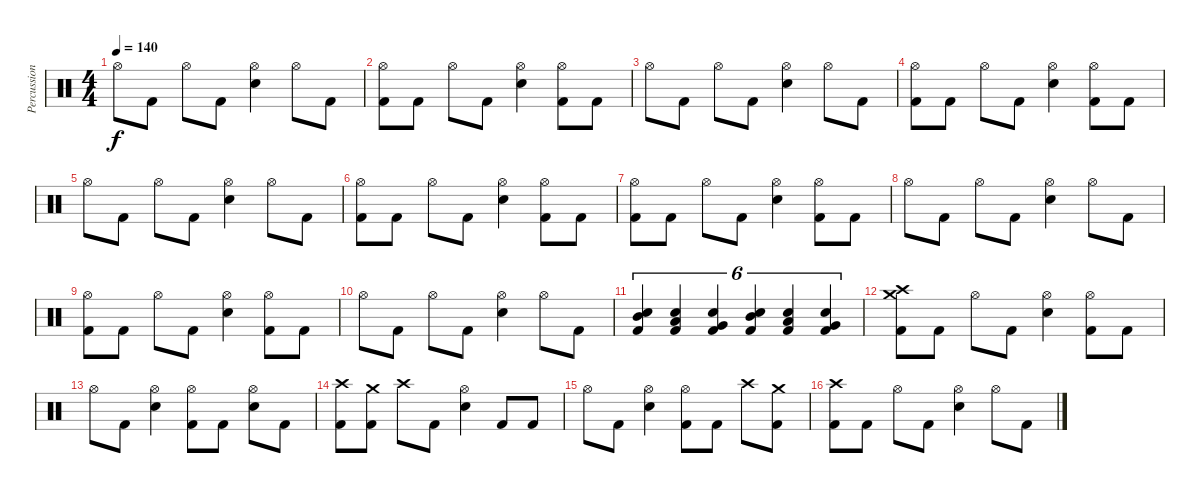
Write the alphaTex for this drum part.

\track ("Percussion" "Percussion") {instrument percussion}
\staff {score}
\articulation defaults
\ts (4 4)
\tempo 140
\clef neutral
\ks c "Hi-Hat (open)".8{dy f} "Kick (hit) 2".8 "Hi-Hat (open)".8 "Kick (hit) 2".8
("Hi-Hat (open)" "Electric Snare (hit)").4 "Hi-Hat (open)".8 "Kick (hit) 2".8 |
("Hi-Hat (open)" "Kick (hit) 2").8 "Kick (hit) 2".8 "Hi-Hat (open)".8 "Kick (hit) 2".8 ("Hi-Hat (open)" "Electric Snare (hit)").4 ("Hi-Hat (open)" "Kick (hit) 2").8 "Kick (hit) 2".8 |
"Hi-Hat (open)".8 "Kick (hit) 2".8 "Hi-Hat (open)".8 "Kick (hit) 2".8 ("Hi-Hat (open)" "Electric Snare (hit)").4 "Hi-Hat (open)".8 "Kick (hit) 2".8 |
("Hi-Hat (open)" "Kick (hit) 2").8 "Kick (hit) 2".8 "Hi-Hat (open)".8 "Kick (hit) 2".8 ("Hi-Hat (open)" "Electric Snare (hit)").4 ("Hi-Hat (open)" "Kick (hit) 2").8 "Kick (hit) 2".8 |
"Hi-Hat (open)".8 "Kick (hit) 2".8 "Hi-Hat (open)".8 "Kick (hit) 2".8 ("Hi-Hat (open)" "Electric Snare (hit)").4 "Hi-Hat (open)".8 "Kick (hit) 2".8 |
("Hi-Hat (open)" "Kick (hit) 2").8 "Kick (hit) 2".8 "Hi-Hat (open)".8 "Kick (hit) 2".8 ("Hi-Hat (open)" "Electric Snare (hit)").4 ("Hi-Hat (open)" "Kick (hit) 2").8 "Kick (hit) 2".8 |
("Hi-Hat (open)" "Kick (hit) 2").8 "Kick (hit) 2".8 "Hi-Hat (open)".8 "Kick (hit) 2".8 ("Hi-Hat (open)" "Electric Snare (hit)").4 ("Hi-Hat (open)" "Kick (hit) 2").8 "Kick (hit) 2".8 |
"Hi-Hat (open)".8 "Kick (hit) 2".8 "Hi-Hat (open)".8 "Kick (hit) 2".8 ("Hi-Hat (open)" "Electric Snare (hit)").4 "Hi-Hat (open)".8 "Kick (hit) 2".8 |
("Hi-Hat (open)" "Kick (hit) 2").8 "Kick (hit) 2".8 "Hi-Hat (open)".8 "Kick (hit) 2".8 ("Hi-Hat (open)" "Electric Snare (hit)").4 ("Hi-Hat (open)" "Kick (hit) 2").8 "Kick (hit) 2".8 |
"Hi-Hat (open)".8 "Kick (hit) 2".8 "Hi-Hat (open)".8 "Kick (hit) 2".8 ("Hi-Hat (open)" "Electric Snare (hit)").4 "Hi-Hat (open)".8 "Kick (hit) 2".8 |
("Mid Tom (hit)" "Electric Snare (hit)" "Kick (hit) 2").4{tu (6 4)} ("Low Tom (hit)" "Electric Snare (hit)" "Kick (hit) 2").4{tu (6 4)} ("Very Low Tom (hit)" "Electric Snare (hit)" "Kick (hit) 2").4{tu (6 4)} ("Mid Tom (hit)" "Electric Snare (hit)" "Kick (hit) 2").4{tu (6 4)} ("Low Tom (hit)" "Electric Snare (hit)" "Kick (hit) 2").4{tu (6 4)} ("Very Low Tom (hit)" "Electric Snare (hit)" "Kick (hit) 2").4{tu (6 4)} |
("Crash high (hit)" "Crash medium (hit)" "Kick (hit) 2").8 "Kick (hit) 2".8 "Hi-Hat (open)".8 "Kick (hit) 2".8 ("Hi-Hat (open)" "Electric Snare (hit)").4 ("Hi-Hat (open)" "Kick (hit) 2").8 "Kick (hit) 2".8 |
"Hi-Hat (open)".8 "Kick (hit) 2".8 ("Hi-Hat (open)" "Electric Snare (hit)").4 ("Hi-Hat (open)" "Kick (hit) 2").8 "Kick (hit) 2".8 ("Hi-Hat (open)" "Electric Snare (hit)").8 "Kick (hit) 2".8 |
("Crash high (hit)" "Kick (hit) 2").8 ("Crash medium (hit)" "Kick (hit) 2").8 "Crash high (hit)".8 "Kick (hit) 2".8 ("Hi-Hat (open)" "Electric Snare (hit)").4 "Kick (hit) 2".8 "Kick (hit) 2".8 |
"Hi-Hat (open)".8 "Kick (hit) 2".8 ("Hi-Hat (open)" "Electric Snare (hit)").4 ("Hi-Hat (open)" "Kick (hit) 2").8 "Kick (hit) 2".8 "Crash high (hit)".8 ("Crash medium (hit)" "Kick (hit) 2").8 |
("Crash high (hit)" "Kick (hit) 2").8 "Kick (hit) 2".8 "Hi-Hat (open)".8 "Kick (hit) 2".8 ("Hi-Hat (open)" "Electric Snare (hit)").4 "Hi-Hat (open)".8 "Kick (hit) 2".8
